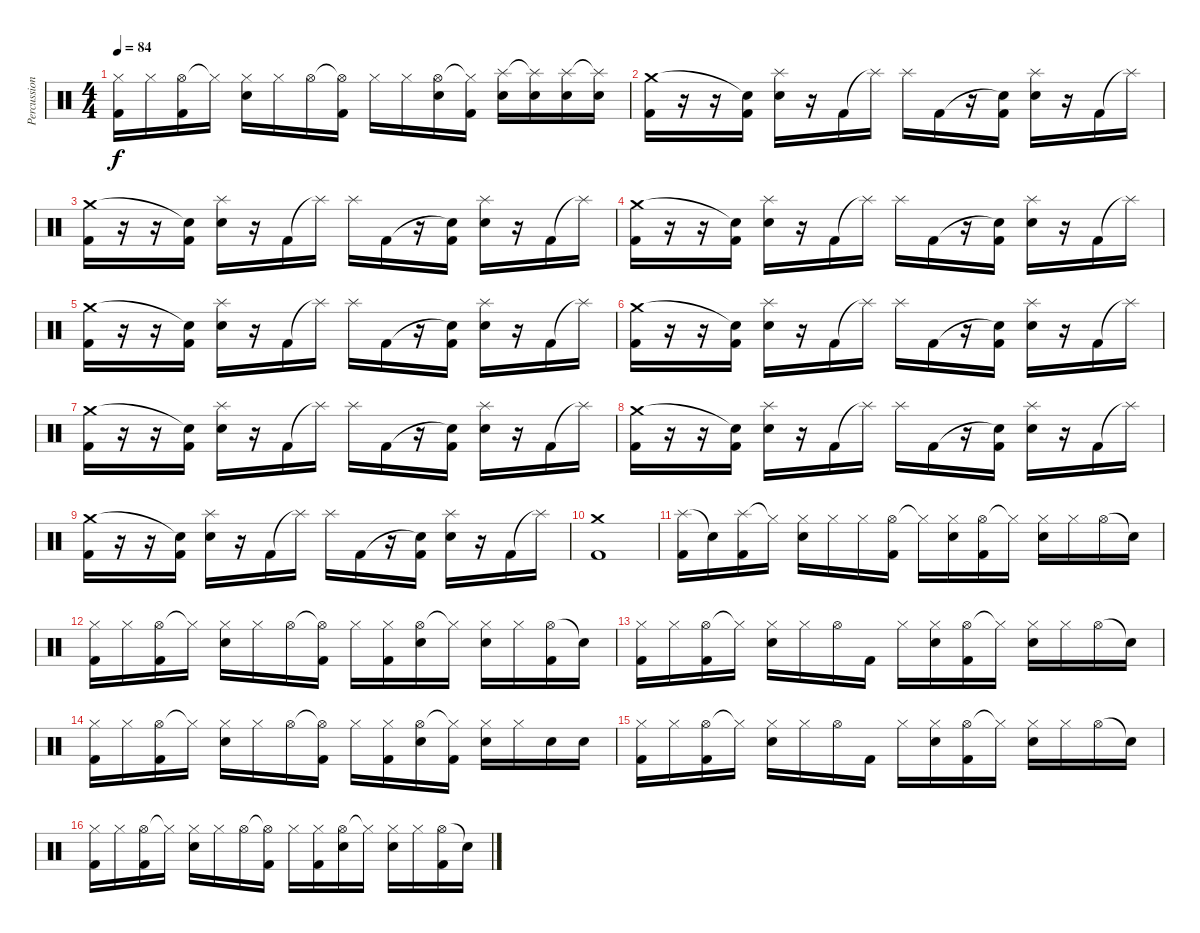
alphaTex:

\track ("Percussion" "Percussion") {instrument percussion}
\staff {score}
\articulation defaults
\ts (4 4)
\tempo 84
\clef neutral
\ks c
("Hi-Hat (closed)" "Kick (hit) 2").16{dy f} "Hi-Hat (closed)".16 ("Hi-Hat (open)" "Kick (hit) 2").16 "Hi-Hat (closed)"{t}.16 ("Hi-Hat (closed)" "Electric Snare (hit)").16 "Hi-Hat (closed)".16 "Hi-Hat (open)".16 ("Hi-Hat (open)"{t} "Kick (hit) 2").16 "Hi-Hat (closed)".16 "Hi-Hat (closed)".16 ("Hi-Hat (open)" "Electric Snare (hit)").16 ("Hi-Hat (closed)"{t} "Kick (hit) 2").16 ("Splash (hit)" "Electric Snare (hit)").16 ("Splash (hit)"{t} "Electric Snare (hit)").16 ("Splash (hit)" "Electric Snare (hit)").16 ("Splash (hit)"{t} "Electric Snare (hit)").16 |
("Crash medium (hit)" "Kick (hit) 2").16 r.16 r.16 ("Snare (hit)"{t} "Kick (hit) 2").16 ("Splash (hit)" "Electric Snare (hit)").16 r.16 "Kick (hit) 2".16 "Splash (hit)"{t}.16 "Splash (hit)".16 "Kick (hit) 2".16 r.16 ("Snare (hit)"{t} "Kick (hit) 2").16 ("Splash (hit)" "Electric Snare (hit)").16 r.16 "Kick (hit) 2".16 "Splash (hit)"{t}.16 |
("Crash medium (hit)" "Kick (hit) 2").16 r.16 r.16 ("Snare (hit)"{t} "Kick (hit) 2").16 ("Splash (hit)" "Electric Snare (hit)").16 r.16 "Kick (hit) 2".16 "Splash (hit)"{t}.16 "Splash (hit)".16 "Kick (hit) 2".16 r.16 ("Snare (hit)"{t} "Kick (hit) 2").16 ("Splash (hit)" "Electric Snare (hit)").16 r.16 "Kick (hit) 2".16 "Splash (hit)"{t}.16 |
("Crash medium (hit)" "Kick (hit) 2").16 r.16 r.16 ("Snare (hit)"{t} "Kick (hit) 2").16 ("Splash (hit)" "Electric Snare (hit)").16 r.16 "Kick (hit) 2".16 "Splash (hit)"{t}.16 "Splash (hit)".16 "Kick (hit) 2".16 r.16 ("Snare (hit)"{t} "Kick (hit) 2").16 ("Splash (hit)" "Electric Snare (hit)").16 r.16 "Kick (hit) 2".16 "Splash (hit)"{t}.16 |
("Crash medium (hit)" "Kick (hit) 2").16 r.16 r.16 ("Snare (hit)"{t} "Kick (hit) 2").16 ("Splash (hit)" "Electric Snare (hit)").16 r.16 "Kick (hit) 2".16 "Splash (hit)"{t}.16 "Splash (hit)".16 "Kick (hit) 2".16 r.16 ("Snare (hit)"{t} "Kick (hit) 2").16 ("Splash (hit)" "Electric Snare (hit)").16 r.16 "Kick (hit) 2".16 "Splash (hit)"{t}.16 |
("Crash medium (hit)" "Kick (hit) 2").16 r.16 r.16 ("Snare (hit)"{t} "Kick (hit) 2").16 ("Splash (hit)" "Electric Snare (hit)").16 r.16 "Kick (hit) 2".16 "Splash (hit)"{t}.16 "Splash (hit)".16 "Kick (hit) 2".16 r.16 ("Snare (hit)"{t} "Kick (hit) 2").16 ("Splash (hit)" "Electric Snare (hit)").16 r.16 "Kick (hit) 2".16 "Splash (hit)"{t}.16 |
("Crash medium (hit)" "Kick (hit) 2").16 r.16 r.16 ("Snare (hit)"{t} "Kick (hit) 2").16 ("Splash (hit)" "Electric Snare (hit)").16 r.16 "Kick (hit) 2".16 "Splash (hit)"{t}.16 "Splash (hit)".16 "Kick (hit) 2".16 r.16 ("Snare (hit)"{t} "Kick (hit) 2").16 ("Splash (hit)" "Electric Snare (hit)").16 r.16 "Kick (hit) 2".16 "Splash (hit)"{t}.16 |
("Crash medium (hit)" "Kick (hit) 2").16 r.16 r.16 ("Snare (hit)"{t} "Kick (hit) 2").16 ("Splash (hit)" "Electric Snare (hit)").16 r.16 "Kick (hit) 2".16 "Splash (hit)"{t}.16 "Splash (hit)".16 "Kick (hit) 2".16 r.16 ("Snare (hit)"{t} "Kick (hit) 2").16 ("Splash (hit)" "Electric Snare (hit)").16 r.16 "Kick (hit) 2".16 "Splash (hit)"{t}.16 |
("Crash medium (hit)" "Kick (hit) 2").16 r.16 r.16 ("Snare (hit)"{t} "Kick (hit) 2").16 ("Splash (hit)" "Electric Snare (hit)").16 r.16 "Kick (hit) 2".16 "Splash (hit)"{t}.16 "Splash (hit)".16 "Kick (hit) 2".16 r.16 ("Snare (hit)"{t} "Kick (hit) 2").16 ("Splash (hit)" "Electric Snare (hit)").16 r.16 "Kick (hit) 2".16 "Splash (hit)"{t}.16 |
("Crash medium (hit)" "Kick (hit) 2").1 |
("Splash (hit)" "Kick (hit) 2").16 "Snare (hit)"{t}.16 ("Splash (hit)" "Kick (hit) 2").16 "Hi-Hat (closed)"{t}.16 ("Hi-Hat (closed)" "Electric Snare (hit)").16 "Hi-Hat (closed)".16 "Hi-Hat (closed)".16 ("Hi-Hat (open)" "Kick (hit) 2").16 "Hi-Hat (closed)"{t}.16 ("Hi-Hat (closed)" "Electric Snare (hit)").16 ("Hi-Hat (open)" "Kick (hit) 2").16 "Hi-Hat (closed)"{t}.16 ("Hi-Hat (closed)" "Electric Snare (hit)").16 "Hi-Hat (closed)".16 "Hi-Hat (open)".16 "Snare (hit)"{t}.16 |
("Hi-Hat (closed)" "Kick (hit) 2").16 "Hi-Hat (closed)".16 ("Hi-Hat (open)" "Kick (hit) 2").16 "Hi-Hat (closed)"{t}.16 ("Hi-Hat (closed)" "Electric Snare (hit)").16 "Hi-Hat (closed)".16 "Hi-Hat (open)".16 ("Hi-Hat (open)"{t} "Kick (hit) 2").16 "Hi-Hat (closed)".16 ("Hi-Hat (closed)" "Kick (hit) 2").16 ("Hi-Hat (open)" "Electric Snare (hit)").16 "Hi-Hat (closed)"{t}.16 ("Hi-Hat (closed)" "Electric Snare (hit)").16 "Hi-Hat (closed)".16 ("Hi-Hat (open)" "Kick (hit) 2").16 "Snare (hit)"{t}.16 |
("Hi-Hat (closed)" "Kick (hit) 2").16 "Hi-Hat (closed)".16 ("Hi-Hat (open)" "Kick (hit) 2").16 "Hi-Hat (closed)"{t}.16 ("Hi-Hat (closed)" "Electric Snare (hit)").16 "Hi-Hat (closed)".16 "Hi-Hat (open)".16 "Kick (hit) 2".16 "Hi-Hat (closed)".16 ("Hi-Hat (closed)" "Electric Snare (hit)").16 ("Hi-Hat (open)" "Kick (hit) 2").16 "Hi-Hat (closed)"{t}.16 ("Hi-Hat (closed)" "Electric Snare (hit)").16 "Hi-Hat (closed)".16 "Hi-Hat (open)".16 "Snare (hit)"{t}.16 |
("Hi-Hat (closed)" "Kick (hit) 2").16 "Hi-Hat (closed)".16 ("Hi-Hat (open)" "Kick (hit) 2").16 "Hi-Hat (closed)"{t}.16 ("Hi-Hat (closed)" "Electric Snare (hit)").16 "Hi-Hat (closed)".16 "Hi-Hat (open)".16 ("Hi-Hat (open)"{t} "Kick (hit) 2").16 "Hi-Hat (closed)".16 ("Hi-Hat (closed)" "Kick (hit) 2").16 ("Hi-Hat (open)" "Electric Snare (hit)").16 ("Hi-Hat (closed)"{t} "Kick (hit) 2").16 ("Hi-Hat (closed)" "Electric Snare (hit)").16 "Hi-Hat (closed)".16 "Electric Snare (hit)".16 "Electric Snare (hit)".16 |
("Hi-Hat (closed)" "Kick (hit) 2").16 "Hi-Hat (closed)".16 ("Hi-Hat (open)" "Kick (hit) 2").16 "Hi-Hat (closed)"{t}.16 ("Hi-Hat (closed)" "Electric Snare (hit)").16 "Hi-Hat (closed)".16 "Hi-Hat (open)".16 "Kick (hit) 2".16 "Hi-Hat (closed)".16 ("Hi-Hat (closed)" "Electric Snare (hit)").16 ("Hi-Hat (open)" "Kick (hit) 2").16 "Hi-Hat (closed)"{t}.16 ("Hi-Hat (closed)" "Electric Snare (hit)").16 "Hi-Hat (closed)".16 "Hi-Hat (open)".16 "Snare (hit)"{t}.16 |
("Hi-Hat (closed)" "Kick (hit) 2").16 "Hi-Hat (closed)".16 ("Hi-Hat (open)" "Kick (hit) 2").16 "Hi-Hat (closed)"{t}.16 ("Hi-Hat (closed)" "Electric Snare (hit)").16 "Hi-Hat (closed)".16 "Hi-Hat (open)".16 ("Hi-Hat (open)"{t} "Kick (hit) 2").16 "Hi-Hat (closed)".16 ("Hi-Hat (closed)" "Kick (hit) 2").16 ("Hi-Hat (open)" "Electric Snare (hit)").16 "Hi-Hat (closed)"{t}.16 ("Hi-Hat (closed)" "Electric Snare (hit)").16 "Hi-Hat (closed)".16 ("Hi-Hat (open)" "Kick (hit) 2").16 "Snare (hit)"{t}.16
